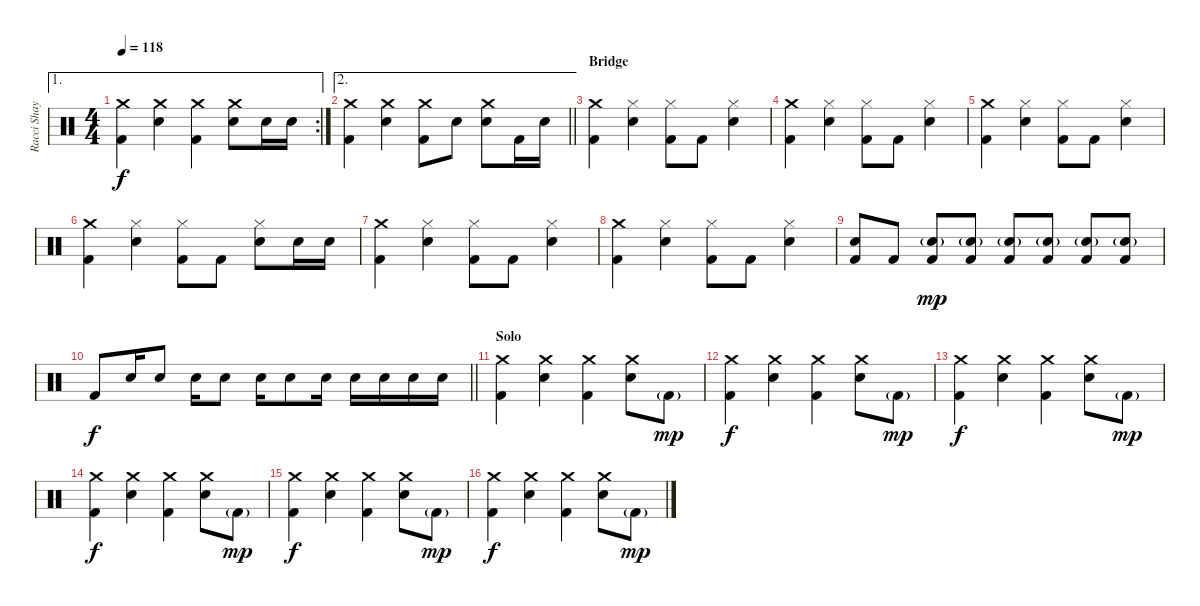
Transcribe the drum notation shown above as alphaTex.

\track ("Racci Shay" "Racci Shay") {instrument percussion}
\staff {score}
\articulation defaults
\ae 1
\rc 2
\ts (4 4)
\tempo 118
\clef neutral
\ks c
("Crash medium (hit)" "Kick (hit) 2").4{dy f} ("Crash medium (hit)" "Electric Snare (hit)").4 ("Crash medium (hit)" "Kick (hit) 2").4 ("Crash medium (hit)" "Electric Snare (hit)").8 "Electric Snare (hit)".16 "Electric Snare (hit)".16 |
\ae 2
\barLineRight lightlight
("Crash medium (hit)" "Kick (hit) 2").4 ("Crash medium (hit)" "Electric Snare (hit)").4 ("Crash medium (hit)" "Kick (hit) 2").8 "Electric Snare (hit)".8 ("Crash medium (hit)" "Electric Snare (hit)").8 "Kick (hit) 2".16 "Electric Snare (hit)".16 |
\section ("" "Bridge")
("Crash medium (hit)" "Kick (hit) 2").4 ("Hi-Hat (closed)" "Electric Snare (hit)").4 ("Hi-Hat (closed)" "Kick (hit) 2").8 "Kick (hit) 2".8 ("Hi-Hat (closed)" "Electric Snare (hit)").4 |
("Crash medium (hit)" "Kick (hit) 2").4 ("Hi-Hat (closed)" "Electric Snare (hit)").4 ("Hi-Hat (closed)" "Kick (hit) 2").8 "Kick (hit) 2".8 ("Hi-Hat (closed)" "Electric Snare (hit)").4 |
("Crash medium (hit)" "Kick (hit) 2").4 ("Hi-Hat (closed)" "Electric Snare (hit)").4 ("Hi-Hat (closed)" "Kick (hit) 2").8 "Kick (hit) 2".8 ("Hi-Hat (closed)" "Electric Snare (hit)").4 |
("Crash medium (hit)" "Kick (hit) 2").4 ("Hi-Hat (closed)" "Electric Snare (hit)").4 ("Hi-Hat (closed)" "Kick (hit) 2").8 "Kick (hit) 2".8 ("Hi-Hat (closed)" "Electric Snare (hit)").8 "Electric Snare (hit)".16 "Electric Snare (hit)".16 |
("Crash medium (hit)" "Kick (hit) 2").4 ("Hi-Hat (closed)" "Electric Snare (hit)").4 ("Hi-Hat (closed)" "Kick (hit) 2").8 "Kick (hit) 2".8 ("Hi-Hat (closed)" "Electric Snare (hit)").4 |
("Crash medium (hit)" "Kick (hit) 2").4 ("Hi-Hat (closed)" "Electric Snare (hit)").4 ("Hi-Hat (closed)" "Kick (hit) 2").8 "Kick (hit) 2".8 ("Hi-Hat (closed)" "Electric Snare (hit)").4 |
("Electric Snare (hit)" "Kick (hit) 2").8 "Kick (hit) 2".8 ("Electric Snare (hit)"{g} "Kick (hit) 2").8{dy mp} ("Electric Snare (hit)"{g} "Kick (hit) 2").8 ("Electric Snare (hit)"{g} "Kick (hit) 2").8 ("Electric Snare (hit)"{g} "Kick (hit) 2").8 ("Electric Snare (hit)"{g} "Kick (hit) 2").8 ("Electric Snare (hit)"{g} "Kick (hit) 2").8 |
\barLineRight lightlight "Kick (hit) 2".8{dy f} "Electric Snare (hit)".16 "Electric Snare (hit)".8 "Electric Snare (hit)".16 "Electric Snare (hit)".8 "Electric Snare (hit)".16 "Electric Snare (hit)".8 "Electric Snare (hit)".16 "Electric Snare (hit)".16 "Electric Snare (hit)".16 "Electric Snare (hit)".16 "Electric Snare (hit)".16
|
\section ("" "Solo")
("Crash medium (hit)" "Kick (hit) 2").4 ("Crash medium (hit)" "Electric Snare (hit)").4 ("Crash medium (hit)" "Kick (hit) 2").4 ("Crash medium (hit)" "Electric Snare (hit)").8 "Kick (hit) 2"{g}.8{dy mp} |
("Crash medium (hit)" "Kick (hit) 2").4{dy f} ("Crash medium (hit)" "Electric Snare (hit)").4 ("Crash medium (hit)" "Kick (hit) 2").4 ("Crash medium (hit)" "Electric Snare (hit)").8 "Kick (hit) 2"{g}.8{dy mp} |
("Crash medium (hit)" "Kick (hit) 2").4{dy f} ("Crash medium (hit)" "Electric Snare (hit)").4 ("Crash medium (hit)" "Kick (hit) 2").4 ("Crash medium (hit)" "Electric Snare (hit)").8 "Kick (hit) 2"{g}.8{dy mp} |
("Crash medium (hit)" "Kick (hit) 2").4{dy f} ("Crash medium (hit)" "Electric Snare (hit)").4 ("Crash medium (hit)" "Kick (hit) 2").4 ("Crash medium (hit)" "Electric Snare (hit)").8 "Kick (hit) 2"{g}.8{dy mp} |
("Crash medium (hit)" "Kick (hit) 2").4{dy f} ("Crash medium (hit)" "Electric Snare (hit)").4 ("Crash medium (hit)" "Kick (hit) 2").4 ("Crash medium (hit)" "Electric Snare (hit)").8 "Kick (hit) 2"{g}.8{dy mp} |
("Crash medium (hit)" "Kick (hit) 2").4{dy f} ("Crash medium (hit)" "Electric Snare (hit)").4 ("Crash medium (hit)" "Kick (hit) 2").4 ("Crash medium (hit)" "Electric Snare (hit)").8 "Kick (hit) 2"{g}.8{dy mp}
